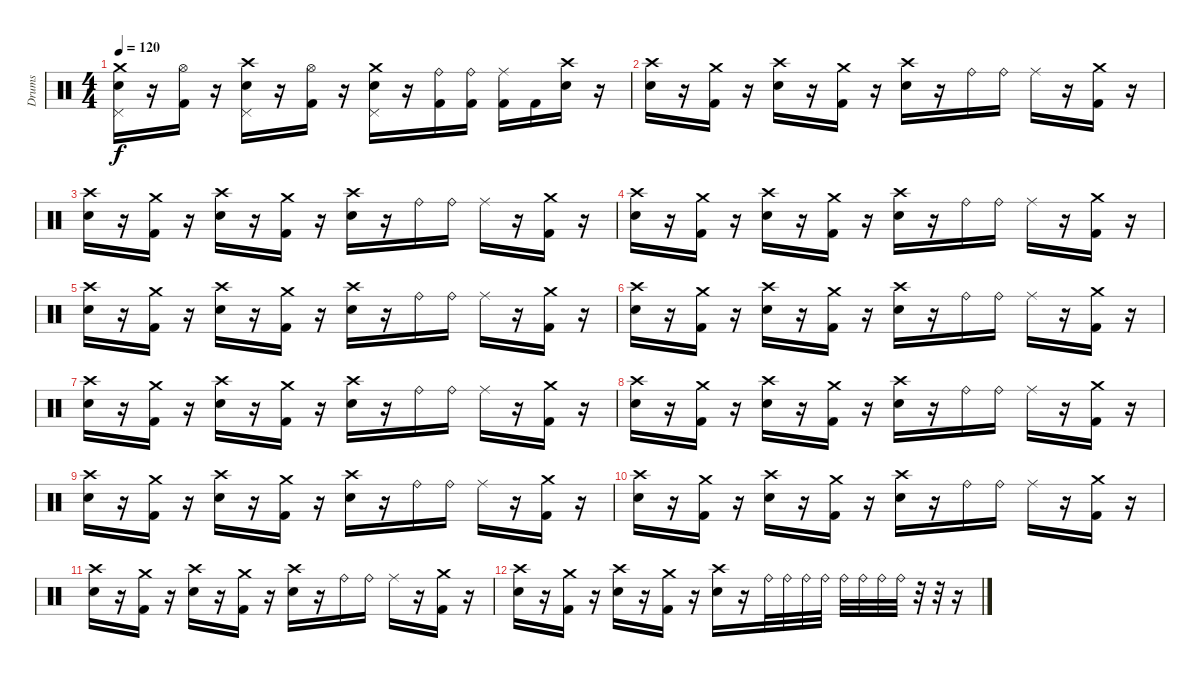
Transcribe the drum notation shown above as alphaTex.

\track ("Drums" "Drums") {instrument percussion}
\staff {score}
\articulation defaults
\ts (4 4)
\tempo 120
\clef neutral
\ks c
("Crash medium (hit)" "Pedal Hi-Hat (hit)" "Snare (hit) 2").16{dy f} r.16 ("Hi-Hat (open)" "Kick (hit) 2").16 r.16 ("Crash high (hit)" "Pedal Hi-Hat (hit)" "Snare (hit) 2").16 r.16 ("Hi-Hat (open)" "Kick (hit) 2").16 r.16 ("Crash medium (hit)" "Pedal Hi-Hat (hit)" "Snare (hit) 2").16 r.16 ("Ride (bell)" "Kick (hit) 2").16 ("Ride (bell)" "Kick (hit) 2").16 ("Ride (middle)" "Kick (hit) 2").16 "Kick (hit) 2".16 ("Crash high (hit)" "Snare (hit) 2").16 r.16 |
("Crash high (hit)" "Snare (hit) 2").16 r.16 ("Crash medium (hit)" "Kick (hit) 2").16 r.16 ("Crash high (hit)" "Snare (hit) 2").16 r.16 ("Crash medium (hit)" "Kick (hit) 2").16 r.16 ("Crash high (hit)" "Snare (hit) 2").16 r.16 "Ride (bell)".16 "Ride (bell)".16 "Ride (middle)".16 r.16 ("Crash medium (hit)" "Kick (hit) 2").16 r.16 |
("Crash high (hit)" "Snare (hit) 2").16 r.16 ("Crash medium (hit)" "Kick (hit) 2").16 r.16 ("Crash high (hit)" "Snare (hit) 2").16 r.16 ("Crash medium (hit)" "Kick (hit) 2").16 r.16 ("Crash high (hit)" "Snare (hit) 2").16 r.16 "Ride (bell)".16 "Ride (bell)".16 "Ride (middle)".16 r.16 ("Crash medium (hit)" "Kick (hit) 2").16 r.16 |
("Crash high (hit)" "Snare (hit) 2").16 r.16 ("Crash medium (hit)" "Kick (hit) 2").16 r.16 ("Crash high (hit)" "Snare (hit) 2").16 r.16 ("Crash medium (hit)" "Kick (hit) 2").16 r.16 ("Crash high (hit)" "Snare (hit) 2").16 r.16 "Ride (bell)".16 "Ride (bell)".16 "Ride (middle)".16 r.16 ("Crash medium (hit)" "Kick (hit) 2").16 r.16 |
("Crash high (hit)" "Snare (hit) 2").16 r.16 ("Crash medium (hit)" "Kick (hit) 2").16 r.16 ("Crash high (hit)" "Snare (hit) 2").16 r.16 ("Crash medium (hit)" "Kick (hit) 2").16 r.16 ("Crash high (hit)" "Snare (hit) 2").16 r.16 "Ride (bell)".16 "Ride (bell)".16 "Ride (middle)".16 r.16 ("Crash medium (hit)" "Kick (hit) 2").16 r.16 |
("Crash high (hit)" "Snare (hit) 2").16 r.16 ("Crash medium (hit)" "Kick (hit) 2").16 r.16 ("Crash high (hit)" "Snare (hit) 2").16 r.16 ("Crash medium (hit)" "Kick (hit) 2").16 r.16 ("Crash high (hit)" "Snare (hit) 2").16 r.16 "Ride (bell)".16 "Ride (bell)".16 "Ride (middle)".16 r.16 ("Crash medium (hit)" "Kick (hit) 2").16 r.16 |
("Crash high (hit)" "Snare (hit) 2").16 r.16 ("Crash medium (hit)" "Kick (hit) 2").16 r.16 ("Crash high (hit)" "Snare (hit) 2").16 r.16 ("Crash medium (hit)" "Kick (hit) 2").16 r.16 ("Crash high (hit)" "Snare (hit) 2").16 r.16 "Ride (bell)".16 "Ride (bell)".16 "Ride (middle)".16 r.16 ("Crash medium (hit)" "Kick (hit) 2").16 r.16 |
("Crash high (hit)" "Snare (hit) 2").16 r.16 ("Crash medium (hit)" "Kick (hit) 2").16 r.16 ("Crash high (hit)" "Snare (hit) 2").16 r.16 ("Crash medium (hit)" "Kick (hit) 2").16 r.16 ("Crash high (hit)" "Snare (hit) 2").16 r.16 "Ride (bell)".16 "Ride (bell)".16 "Ride (middle)".16 r.16 ("Crash medium (hit)" "Kick (hit) 2").16 r.16 |
("Crash high (hit)" "Snare (hit) 2").16 r.16 ("Crash medium (hit)" "Kick (hit) 2").16 r.16 ("Crash high (hit)" "Snare (hit) 2").16 r.16 ("Crash medium (hit)" "Kick (hit) 2").16 r.16 ("Crash high (hit)" "Snare (hit) 2").16 r.16 "Ride (bell)".16 "Ride (bell)".16 "Ride (middle)".16 r.16 ("Crash medium (hit)" "Kick (hit) 2").16 r.16 |
("Crash high (hit)" "Snare (hit) 2").16 r.16 ("Crash medium (hit)" "Kick (hit) 2").16 r.16 ("Crash high (hit)" "Snare (hit) 2").16 r.16 ("Crash medium (hit)" "Kick (hit) 2").16 r.16 ("Crash high (hit)" "Snare (hit) 2").16 r.16 "Ride (bell)".16 "Ride (bell)".16 "Ride (middle)".16 r.16 ("Crash medium (hit)" "Kick (hit) 2").16 r.16 |
("Crash high (hit)" "Snare (hit) 2").16 r.16 ("Crash medium (hit)" "Kick (hit) 2").16 r.16 ("Crash high (hit)" "Snare (hit) 2").16 r.16 ("Crash medium (hit)" "Kick (hit) 2").16 r.16 ("Crash high (hit)" "Snare (hit) 2").16 r.16 "Ride (bell)".16 "Ride (bell)".16 "Ride (middle)".16 r.16 ("Crash medium (hit)" "Kick (hit) 2").16 r.16 |
("Crash high (hit)" "Snare (hit) 2").16 r.16 ("Crash medium (hit)" "Kick (hit) 2").16 r.16 ("Crash high (hit)" "Snare (hit) 2").16 r.16 ("Crash medium (hit)" "Kick (hit) 2").16 r.16 ("Crash high (hit)" "Snare (hit) 2").16 r.16 "Ride (bell)".32 "Ride (bell)".32 "Ride (bell)".32 "Ride (bell)".32 "Ride (bell)".32 "Ride (bell)".32 "Ride (bell)".32 "Ride (bell)".32 r.32 r.32 r.16
